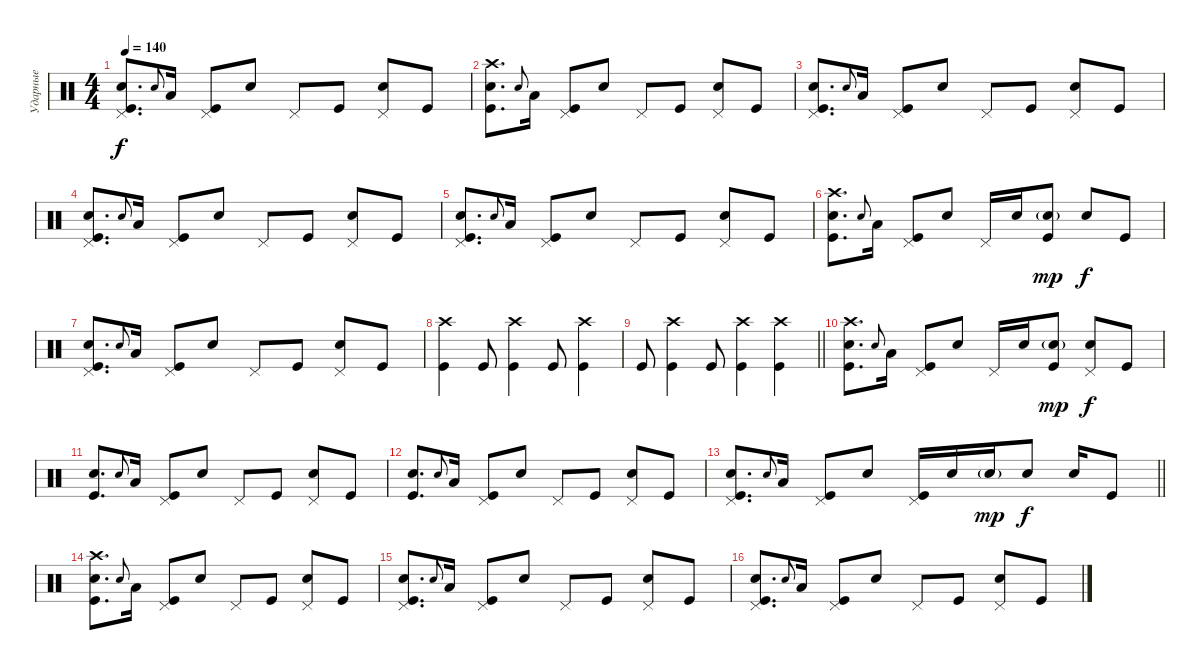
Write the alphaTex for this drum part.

\track ("Ударные" "Ударные") {instrument percussion}
\staff {score}
\articulation defaults
\ts (4 4)
\tempo 140
\clef neutral
\ks c
("Pedal Hi-Hat (hit)" "Snare (hit) 2" "Kick (hit)").8{d dy f} "Snare (hit) 2"{x}.8{gr onbeat} "Low Tom (hit)".16 ("Pedal Hi-Hat (hit)" "Kick (hit)").8 "Snare (hit) 2".8 "Pedal Hi-Hat (hit)".8 "Kick (hit)".8 ("Pedal Hi-Hat (hit)" "Electric Snare (hit)").8 "Kick (hit)".8 |
("Crash high (hit)" "Snare (hit) 2" "Kick (hit)").8{d} "Snare (hit) 2"{x}.8{gr onbeat} "Low Tom (hit)".16 ("Pedal Hi-Hat (hit)" "Kick (hit)").8 "Snare (hit) 2".8 "Pedal Hi-Hat (hit)".8 "Kick (hit)".8 ("Pedal Hi-Hat (hit)" "Electric Snare (hit)").8 "Kick (hit)".8 |
("Pedal Hi-Hat (hit)" "Snare (hit) 2" "Kick (hit)").8{d} "Snare (hit) 2"{x}.8{gr onbeat} "Low Tom (hit)".16 ("Pedal Hi-Hat (hit)" "Kick (hit)").8 "Snare (hit) 2".8 "Pedal Hi-Hat (hit)".8 "Kick (hit)".8 ("Pedal Hi-Hat (hit)" "Electric Snare (hit)").8 "Kick (hit)".8 |
("Pedal Hi-Hat (hit)" "Snare (hit) 2" "Kick (hit)").8{d} "Snare (hit) 2"{x}.8{gr onbeat} "Low Tom (hit)".16 ("Pedal Hi-Hat (hit)" "Kick (hit)").8 "Snare (hit) 2".8 "Pedal Hi-Hat (hit)".8 "Kick (hit)".8 ("Pedal Hi-Hat (hit)" "Electric Snare (hit)").8 "Kick (hit)".8 |
("Pedal Hi-Hat (hit)" "Snare (hit) 2" "Kick (hit)").8{d} "Snare (hit) 2"{x}.8{gr onbeat} "Low Tom (hit)".16 ("Pedal Hi-Hat (hit)" "Kick (hit)").8 "Snare (hit) 2".8 "Pedal Hi-Hat (hit)".8 "Kick (hit)".8 ("Pedal Hi-Hat (hit)" "Electric Snare (hit)").8 "Kick (hit)".8 |
("Crash high (hit)" "Snare (hit) 2" "Kick (hit)").8{d} "Snare (hit) 2"{x}.8{gr onbeat} "Low Tom (hit)".16 ("Pedal Hi-Hat (hit)" "Kick (hit)").8 "Snare (hit) 2".8 "Pedal Hi-Hat (hit)".16 "Snare (hit) 2".16 ("Snare (hit) 2"{g} "Kick (hit)").8{dy mp} "Electric Snare (hit)".8{dy f} "Kick (hit)".8 |
("Pedal Hi-Hat (hit)" "Snare (hit) 2" "Kick (hit)").8{d} "Snare (hit) 2"{x}.8{gr onbeat} "Low Tom (hit)".16 ("Pedal Hi-Hat (hit)" "Kick (hit)").8 "Snare (hit) 2".8 "Pedal Hi-Hat (hit)".8 "Kick (hit)".8 ("Pedal Hi-Hat (hit)" "Electric Snare (hit)").8 "Kick (hit)".8 |
("Crash high (hit)" "Kick (hit)").4 "Kick (hit)".8 ("Crash high (hit)" "Kick (hit)").4 "Kick (hit)".8 ("Crash high (hit)" "Kick (hit)").4 |
\barLineRight lightlight "Kick (hit)".8
("Crash high (hit)" "Kick (hit)").4 "Kick (hit)".8 ("Crash high (hit)" "Kick (hit)").4 ("Crash high (hit)" "Kick (hit)").4 |
("Crash high (hit)" "Snare (hit) 2" "Kick (hit)").8{d} "Snare (hit) 2"{x}.8{gr onbeat} "Low Tom (hit)".16 ("Pedal Hi-Hat (hit)" "Kick (hit)").8 "Snare (hit) 2".8 "Pedal Hi-Hat (hit)".16 "Snare (hit) 2".16 ("Snare (hit) 2"{g} "Kick (hit)").8{dy mp} ("Pedal Hi-Hat (hit)" "Electric Snare (hit)").8{dy f} "Kick (hit)".8 |
("Snare (hit) 2" "Kick (hit)").8{d} "Snare (hit) 2"{x}.8{gr onbeat} "Low Tom (hit)".16 ("Pedal Hi-Hat (hit)" "Kick (hit)").8 "Snare (hit) 2".8 "Pedal Hi-Hat (hit)".8 "Kick (hit)".8 ("Pedal Hi-Hat (hit)" "Electric Snare (hit)").8 "Kick (hit)".8 |
("Snare (hit) 2" "Kick (hit)").8{d} "Snare (hit) 2"{x}.8{gr onbeat} "Low Tom (hit)".16 ("Pedal Hi-Hat (hit)" "Kick (hit)").8 "Snare (hit) 2".8 "Pedal Hi-Hat (hit)".8 "Kick (hit)".8 ("Pedal Hi-Hat (hit)" "Electric Snare (hit)").8 "Kick (hit)".8 |
\barLineRight lightlight
("Pedal Hi-Hat (hit)" "Snare (hit) 2" "Kick (hit)").8{d} "Snare (hit) 2"{x}.8{gr onbeat} "Low Tom (hit)".16 ("Pedal Hi-Hat (hit)" "Kick (hit)").8 "Snare (hit) 2".8 ("Pedal Hi-Hat (hit)" "Kick (hit)").16 "Snare (hit) 2".16 "Snare (hit) 2"{g}.16{dy mp} "Snare (hit) 2".8{dy f} "Snare (hit) 2".16 "Kick (hit)".8 |
("Crash high (hit)" "Snare (hit) 2" "Kick (hit)").8{d} "Snare (hit) 2"{x}.8{gr onbeat} "Low Tom (hit)".16 ("Pedal Hi-Hat (hit)" "Kick (hit)").8 "Snare (hit) 2".8 "Pedal Hi-Hat (hit)".8 "Kick (hit)".8 ("Pedal Hi-Hat (hit)" "Electric Snare (hit)").8 "Kick (hit)".8 |
("Pedal Hi-Hat (hit)" "Snare (hit) 2" "Kick (hit)").8{d} "Snare (hit) 2"{x}.8{gr onbeat} "Low Tom (hit)".16 ("Pedal Hi-Hat (hit)" "Kick (hit)").8 "Snare (hit) 2".8 "Pedal Hi-Hat (hit)".8 "Kick (hit)".8 ("Pedal Hi-Hat (hit)" "Electric Snare (hit)").8 "Kick (hit)".8 |
("Pedal Hi-Hat (hit)" "Snare (hit) 2" "Kick (hit)").8{d} "Snare (hit) 2"{x}.8{gr onbeat} "Low Tom (hit)".16 ("Pedal Hi-Hat (hit)" "Kick (hit)").8 "Snare (hit) 2".8 "Pedal Hi-Hat (hit)".8 "Kick (hit)".8 ("Pedal Hi-Hat (hit)" "Electric Snare (hit)").8 "Kick (hit)".8
